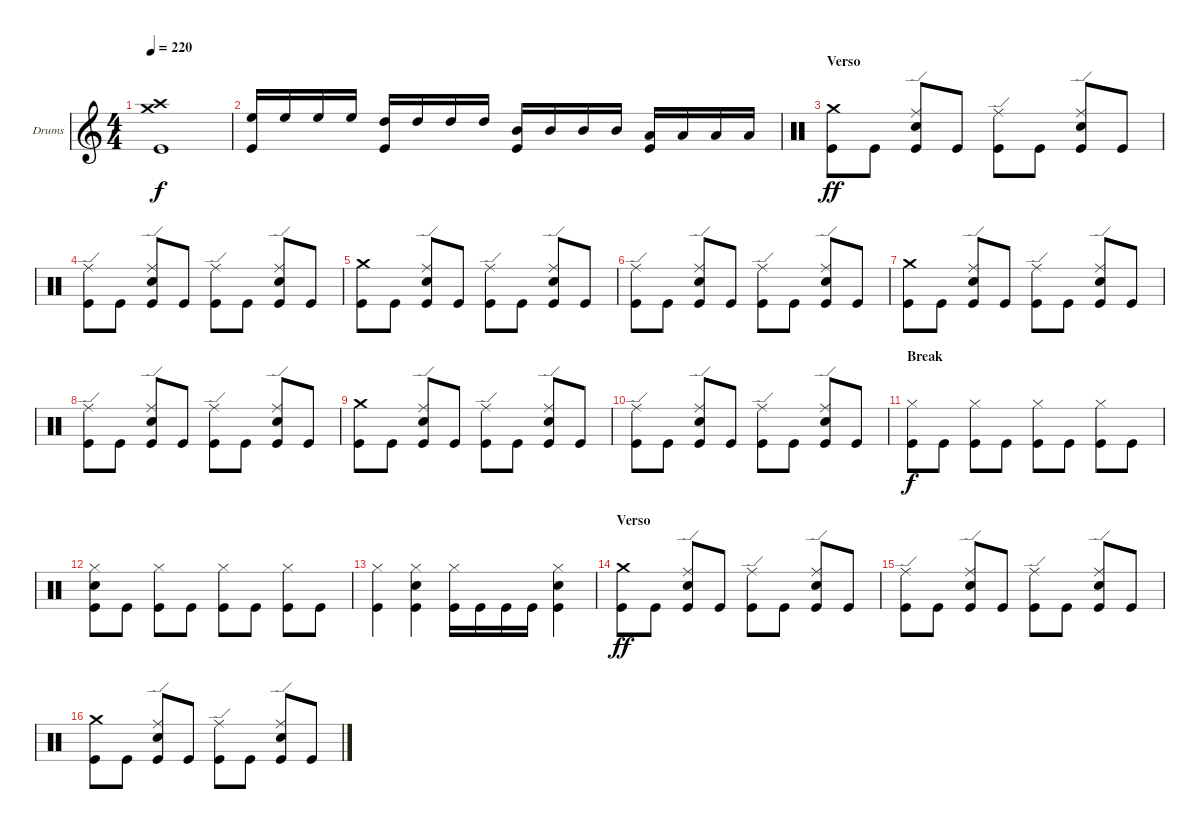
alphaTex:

\defaultSystemsLayout 4
\bracketExtendMode groupsimilarinstruments
\firstSystemTrackNameOrientation horizontal
\otherSystemsTrackNameOrientation horizontal
\track ("Drumkit" "Drums") {instrument percussion}
\staff {score}
\articulation defaults
\ts (4 4)
\tempo 220
\clef g2
\ks c
("Kick (hit)" "Crash high (hit)" "Crash medium (hit)").1{dy f} |
("High Floor Tom (hit)" "Kick (hit)").16 "High Floor Tom (hit)".16 "High Floor Tom (hit)".16 "High Floor Tom (hit)".16 ("High Tom (hit)" "Kick (hit)").16 "High Tom (hit)".16 "High Tom (hit)".16 "High Tom (hit)".16 ("Mid Tom (hit)" "Kick (hit)").16 "Mid Tom (hit)".16 "Mid Tom (hit)".16 "Mid Tom (hit)".16 ("Low Tom (hit)" "Kick (hit)").16 "Low Tom (hit)".16 "Low Tom (hit)".16 "Low Tom (hit)".16 |
\section ("" "Verso")
\clef neutral
("Crash medium (hit)" "Kick (hit)").8{dy ff} "Kick (hit)".8 ("Ride (edge)" "Kick (hit)" "Snare (hit) 2").8 "Kick (hit)".8 ("Ride (edge)" "Kick (hit)").8 "Kick (hit)".8 ("Ride (edge)" "Kick (hit)" "Snare (hit) 2").8 "Kick (hit)".8 |
("Kick (hit)" "Ride (edge)").8 "Kick (hit)".8 ("Ride (edge)" "Kick (hit)" "Snare (hit) 2").8 "Kick (hit)".8 ("Ride (edge)" "Kick (hit)").8 "Kick (hit)".8 ("Ride (edge)" "Kick (hit)" "Snare (hit) 2").8 "Kick (hit)".8 |
("Crash medium (hit)" "Kick (hit)").8 "Kick (hit)".8 ("Ride (edge)" "Kick (hit)" "Snare (hit) 2").8 "Kick (hit)".8 ("Ride (edge)" "Kick (hit)").8 "Kick (hit)".8 ("Ride (edge)" "Kick (hit)" "Snare (hit) 2").8 "Kick (hit)".8 |
("Kick (hit)" "Ride (edge)").8 "Kick (hit)".8 ("Ride (edge)" "Kick (hit)" "Snare (hit) 2").8 "Kick (hit)".8 ("Ride (edge)" "Kick (hit)").8 "Kick (hit)".8 ("Ride (edge)" "Kick (hit)" "Snare (hit) 2").8 "Kick (hit)".8 |
("Crash medium (hit)" "Kick (hit)").8 "Kick (hit)".8 ("Ride (edge)" "Kick (hit)" "Snare (hit) 2").8 "Kick (hit)".8 ("Ride (edge)" "Kick (hit)").8 "Kick (hit)".8 ("Ride (edge)" "Kick (hit)" "Snare (hit) 2").8 "Kick (hit)".8 |
("Kick (hit)" "Ride (edge)").8 "Kick (hit)".8 ("Ride (edge)" "Kick (hit)" "Snare (hit) 2").8 "Kick (hit)".8 ("Ride (edge)" "Kick (hit)").8 "Kick (hit)".8 ("Ride (edge)" "Kick (hit)" "Snare (hit) 2").8 "Kick (hit)".8 |
("Crash medium (hit)" "Kick (hit)").8 "Kick (hit)".8 ("Ride (edge)" "Kick (hit)" "Snare (hit) 2").8 "Kick (hit)".8 ("Ride (edge)" "Kick (hit)").8 "Kick (hit)".8 ("Ride (edge)" "Kick (hit)" "Snare (hit) 2").8 "Kick (hit)".8 |
("Kick (hit)" "Ride (edge)").8 "Kick (hit)".8 ("Ride (edge)" "Kick (hit)" "Snare (hit) 2").8 "Kick (hit)".8 ("Ride (edge)" "Kick (hit)").8 "Kick (hit)".8 ("Ride (edge)" "Kick (hit)" "Snare (hit) 2").8 "Kick (hit)".8 |
\section ("" "Break")
("Hi-Hat (closed)" "Kick (hit)").8{dy f} "Kick (hit)".8 ("Kick (hit)" "Hi-Hat (closed)").8 "Kick (hit)".8 ("Hi-Hat (closed)" "Kick (hit)").8 "Kick (hit)".8 ("Kick (hit)" "Hi-Hat (closed)").8 "Kick (hit)".8 |
("Hi-Hat (closed)" "Kick (hit)" "Snare (hit) 2").8 "Kick (hit)".8 ("Kick (hit)" "Hi-Hat (closed)").8 "Kick (hit)".8 ("Hi-Hat (closed)" "Kick (hit)").8 "Kick (hit)".8 ("Kick (hit)" "Hi-Hat (closed)").8 "Kick (hit)".8 |
("Hi-Hat (closed)" "Kick (hit)").4 ("Hi-Hat (closed)" "Snare (hit) 2" "Kick (hit)").4 ("Hi-Hat (closed)" "Kick (hit)").16 "Kick (hit)".16 "Kick (hit)".16 "Kick (hit)".16 ("Hi-Hat (closed)" "Snare (hit) 2" "Kick (hit)").4 |
\section ("" "Verso")
("Crash medium (hit)" "Kick (hit)").8{dy ff} "Kick (hit)".8 ("Ride (edge)" "Kick (hit)" "Snare (hit) 2").8 "Kick (hit)".8 ("Ride (edge)" "Kick (hit)").8 "Kick (hit)".8 ("Ride (edge)" "Kick (hit)" "Snare (hit) 2").8 "Kick (hit)".8 |
("Kick (hit)" "Ride (edge)").8 "Kick (hit)".8 ("Ride (edge)" "Kick (hit)" "Snare (hit) 2").8 "Kick (hit)".8 ("Ride (edge)" "Kick (hit)").8 "Kick (hit)".8 ("Ride (edge)" "Kick (hit)" "Snare (hit) 2").8 "Kick (hit)".8 |
("Crash medium (hit)" "Kick (hit)").8 "Kick (hit)".8 ("Ride (edge)" "Kick (hit)" "Snare (hit) 2").8 "Kick (hit)".8 ("Ride (edge)" "Kick (hit)").8 "Kick (hit)".8 ("Ride (edge)" "Kick (hit)" "Snare (hit) 2").8 "Kick (hit)".8
